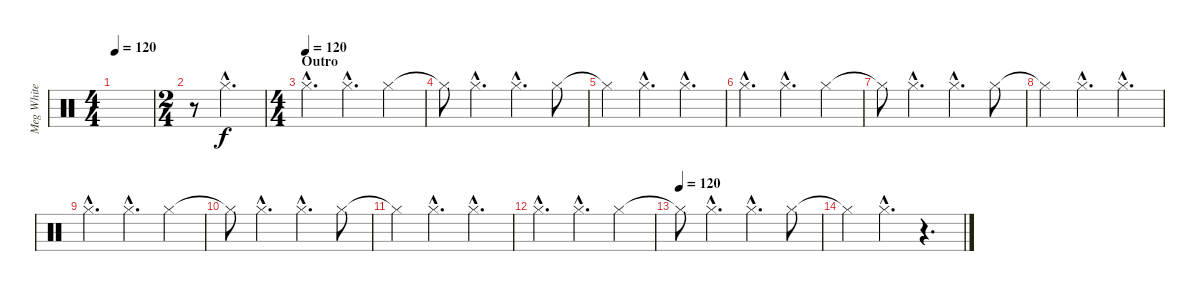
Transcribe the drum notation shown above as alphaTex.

\track ("Meg White - Drums" "Meg White ") {instrument percussion}
\staff {score}
\articulation defaults
\ts (4 4)
\tempo 120
\clef neutral
\ks c
|
\ts (2 4)
r.8 "Hi-Hat (closed)"{hac}.4{d} |
\ts (4 4)
\section ("" "Outro")
\tempo (120)
"Hi-Hat (closed)"{hac}.4{d} "Hi-Hat (closed)"{hac}.4{d} "Hi-Hat (closed)".4 |
"Hi-Hat (closed)"{t}.8 "Hi-Hat (closed)"{hac}.4{d} "Hi-Hat (closed)"{hac}.4{d} "Hi-Hat (closed)".8 |
"Hi-Hat (closed)"{t}.4 "Hi-Hat (closed)"{hac}.4{d} "Hi-Hat (closed)"{hac}.4{d} |
"Hi-Hat (closed)"{hac}.4{d} "Hi-Hat (closed)"{hac}.4{d} "Hi-Hat (closed)".4 |
"Hi-Hat (closed)"{t}.8 "Hi-Hat (closed)"{hac}.4{d} "Hi-Hat (closed)"{hac}.4{d} "Hi-Hat (closed)".8 |
"Hi-Hat (closed)"{t}.4 "Hi-Hat (closed)"{hac}.4{d} "Hi-Hat (closed)"{hac}.4{d} |
"Hi-Hat (closed)"{hac}.4{d} "Hi-Hat (closed)"{hac}.4{d} "Hi-Hat (closed)".4 |
"Hi-Hat (closed)"{t}.8 "Hi-Hat (closed)"{hac}.4{d} "Hi-Hat (closed)"{hac}.4{d} "Hi-Hat (closed)".8 |
"Hi-Hat (closed)"{t}.4 "Hi-Hat (closed)"{hac}.4{d} "Hi-Hat (closed)"{hac}.4{d} |
"Hi-Hat (closed)"{hac}.4{d} "Hi-Hat (closed)"{hac}.4{d} "Hi-Hat (closed)".4 |
\tempo (120)
"Hi-Hat (closed)"{t}.8 "Hi-Hat (closed)"{hac}.4{d} "Hi-Hat (closed)"{hac}.4{d} "Hi-Hat (closed)".8 |
"Hi-Hat (closed)"{t}.4 "Hi-Hat (closed)"{hac}.4{d} r.4{d}
